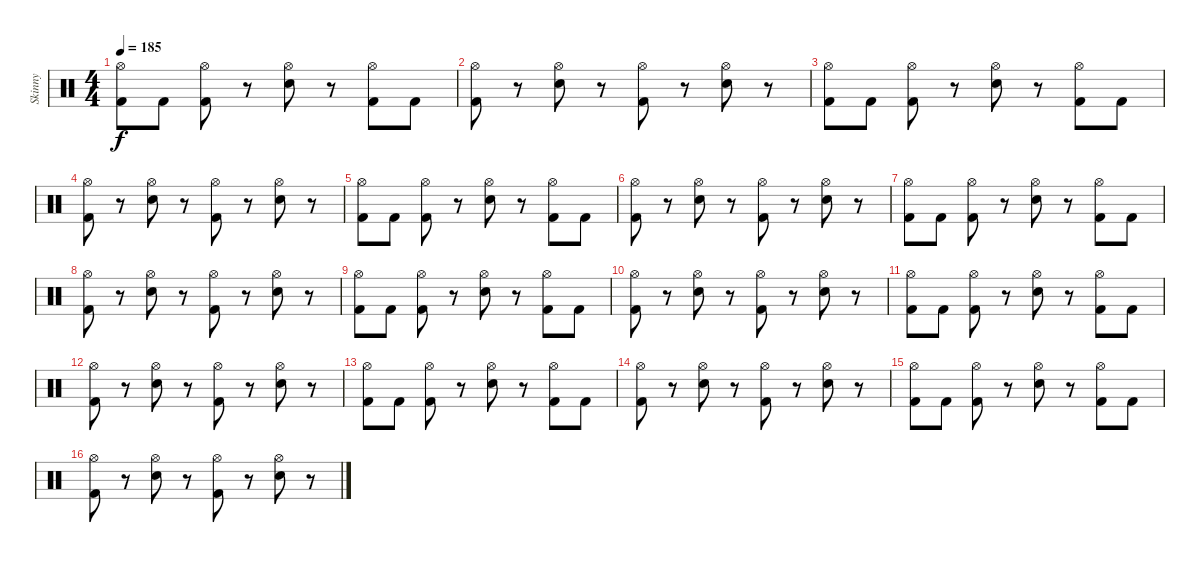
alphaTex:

\track ("Skinny" "Skinny") {instrument percussion}
\staff {score}
\articulation defaults
\ts (4 4)
\tempo 185
\clef neutral
\ks c
("Hi-Hat (open)" "Kick (hit) 2").8{dy f} "Kick (hit) 2".8 ("Hi-Hat (open)" "Kick (hit) 2").8 r.8 ("Hi-Hat (open)" "Snare (hit) 2").8 r.8 ("Hi-Hat (open)" "Kick (hit) 2").8 "Kick (hit) 2".8 |
("Hi-Hat (open)" "Kick (hit) 2").8 r.8 ("Hi-Hat (open)" "Snare (hit) 2").8 r.8 ("Hi-Hat (open)" "Kick (hit) 2").8 r.8 ("Hi-Hat (open)" "Snare (hit) 2").8 r.8 |
("Hi-Hat (open)" "Kick (hit) 2").8 "Kick (hit) 2".8 ("Hi-Hat (open)" "Kick (hit) 2").8 r.8 ("Hi-Hat (open)" "Snare (hit) 2").8 r.8 ("Hi-Hat (open)" "Kick (hit) 2").8 "Kick (hit) 2".8 |
("Hi-Hat (open)" "Kick (hit) 2").8 r.8 ("Hi-Hat (open)" "Snare (hit) 2").8 r.8 ("Hi-Hat (open)" "Kick (hit) 2").8 r.8 ("Hi-Hat (open)" "Snare (hit) 2").8 r.8 |
("Hi-Hat (open)" "Kick (hit) 2").8 "Kick (hit) 2".8 ("Hi-Hat (open)" "Kick (hit) 2").8 r.8 ("Hi-Hat (open)" "Snare (hit) 2").8 r.8 ("Hi-Hat (open)" "Kick (hit) 2").8 "Kick (hit) 2".8 |
("Hi-Hat (open)" "Kick (hit) 2").8 r.8 ("Hi-Hat (open)" "Snare (hit) 2").8 r.8 ("Hi-Hat (open)" "Kick (hit) 2").8 r.8 ("Hi-Hat (open)" "Snare (hit) 2").8 r.8 |
("Hi-Hat (open)" "Kick (hit) 2").8 "Kick (hit) 2".8 ("Hi-Hat (open)" "Kick (hit) 2").8 r.8 ("Hi-Hat (open)" "Snare (hit) 2").8 r.8 ("Hi-Hat (open)" "Kick (hit) 2").8 "Kick (hit) 2".8 |
("Hi-Hat (open)" "Kick (hit) 2").8 r.8 ("Hi-Hat (open)" "Snare (hit) 2").8 r.8 ("Hi-Hat (open)" "Kick (hit) 2").8 r.8 ("Hi-Hat (open)" "Snare (hit) 2").8 r.8 |
("Hi-Hat (open)" "Kick (hit) 2").8 "Kick (hit) 2".8 ("Hi-Hat (open)" "Kick (hit) 2").8 r.8 ("Hi-Hat (open)" "Snare (hit) 2").8 r.8 ("Hi-Hat (open)" "Kick (hit) 2").8 "Kick (hit) 2".8 |
("Hi-Hat (open)" "Kick (hit) 2").8 r.8 ("Hi-Hat (open)" "Snare (hit) 2").8 r.8 ("Hi-Hat (open)" "Kick (hit) 2").8 r.8 ("Hi-Hat (open)" "Snare (hit) 2").8 r.8 |
("Hi-Hat (open)" "Kick (hit) 2").8 "Kick (hit) 2".8 ("Hi-Hat (open)" "Kick (hit) 2").8 r.8 ("Hi-Hat (open)" "Snare (hit) 2").8 r.8 ("Hi-Hat (open)" "Kick (hit) 2").8 "Kick (hit) 2".8 |
("Hi-Hat (open)" "Kick (hit) 2").8 r.8 ("Hi-Hat (open)" "Snare (hit) 2").8 r.8 ("Hi-Hat (open)" "Kick (hit) 2").8 r.8 ("Hi-Hat (open)" "Snare (hit) 2").8 r.8 |
("Hi-Hat (open)" "Kick (hit) 2").8 "Kick (hit) 2".8 ("Hi-Hat (open)" "Kick (hit) 2").8 r.8 ("Hi-Hat (open)" "Snare (hit) 2").8 r.8 ("Hi-Hat (open)" "Kick (hit) 2").8 "Kick (hit) 2".8 |
("Hi-Hat (open)" "Kick (hit) 2").8 r.8 ("Hi-Hat (open)" "Snare (hit) 2").8 r.8 ("Hi-Hat (open)" "Kick (hit) 2").8 r.8 ("Hi-Hat (open)" "Snare (hit) 2").8 r.8 |
("Hi-Hat (open)" "Kick (hit) 2").8 "Kick (hit) 2".8 ("Hi-Hat (open)" "Kick (hit) 2").8 r.8 ("Hi-Hat (open)" "Snare (hit) 2").8 r.8 ("Hi-Hat (open)" "Kick (hit) 2").8 "Kick (hit) 2".8 |
("Hi-Hat (open)" "Kick (hit) 2").8 r.8 ("Hi-Hat (open)" "Snare (hit) 2").8 r.8 ("Hi-Hat (open)" "Kick (hit) 2").8 r.8 ("Hi-Hat (open)" "Snare (hit) 2").8 r.8
